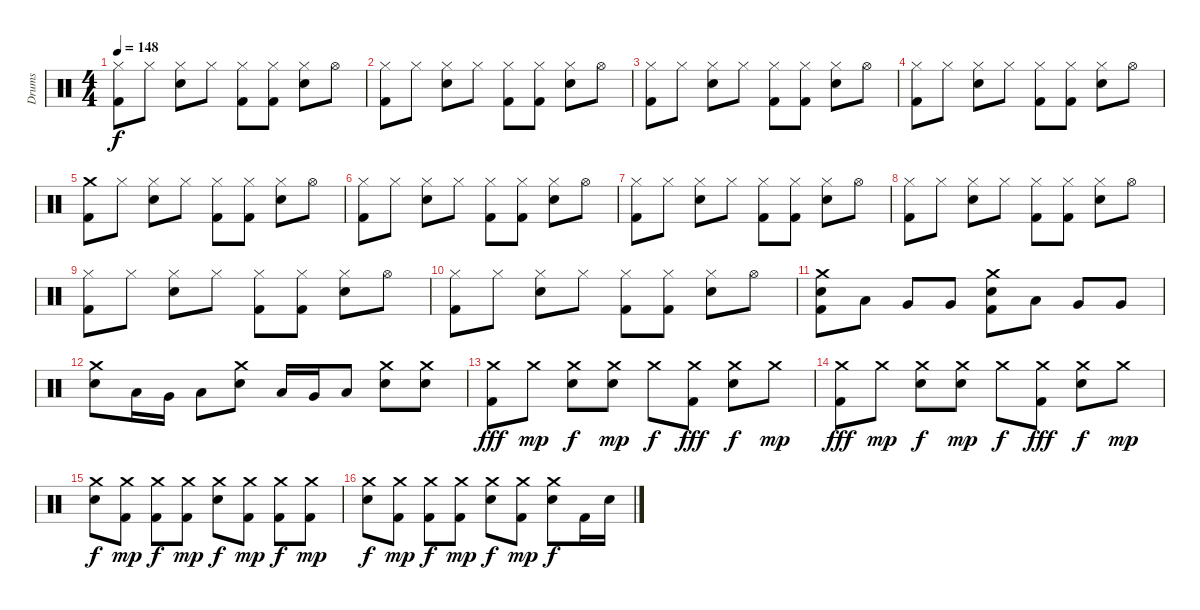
\track ("Drums" "Drums") {instrument percussion}
\staff {score}
\articulation defaults
\ts (4 4)
\tempo 148
\clef neutral
\ks c
("Hi-Hat (closed)" "Kick (hit) 2").8{dy f} "Hi-Hat (closed)".8 ("Hi-Hat (closed)" "Snare (hit) 2").8 "Hi-Hat (closed)".8 ("Hi-Hat (closed)" "Kick (hit) 2").8 ("Hi-Hat (closed)" "Kick (hit) 2").8 ("Hi-Hat (closed)" "Snare (hit) 2").8 "Hi-Hat (open)".8 |
("Hi-Hat (closed)" "Kick (hit) 2").8 "Hi-Hat (closed)".8 ("Hi-Hat (closed)" "Snare (hit) 2").8 "Hi-Hat (closed)".8 ("Hi-Hat (closed)" "Kick (hit) 2").8 ("Hi-Hat (closed)" "Kick (hit) 2").8 ("Hi-Hat (closed)" "Snare (hit) 2").8 "Hi-Hat (open)".8 |
("Hi-Hat (closed)" "Kick (hit) 2").8 "Hi-Hat (closed)".8 ("Hi-Hat (closed)" "Snare (hit) 2").8 "Hi-Hat (closed)".8 ("Hi-Hat (closed)" "Kick (hit) 2").8 ("Hi-Hat (closed)" "Kick (hit) 2").8 ("Hi-Hat (closed)" "Snare (hit) 2").8 "Hi-Hat (open)".8 |
("Hi-Hat (closed)" "Kick (hit) 2").8 "Hi-Hat (closed)".8 ("Hi-Hat (closed)" "Snare (hit) 2").8 "Hi-Hat (closed)".8 ("Hi-Hat (closed)" "Kick (hit) 2").8 ("Hi-Hat (closed)" "Kick (hit) 2").8 ("Hi-Hat (closed)" "Snare (hit) 2").8 "Hi-Hat (open)".8 |
("Crash medium (hit)" "Kick (hit) 2").8 "Hi-Hat (closed)".8 ("Hi-Hat (closed)" "Snare (hit) 2").8 "Hi-Hat (closed)".8 ("Hi-Hat (closed)" "Kick (hit) 2").8 ("Hi-Hat (closed)" "Kick (hit) 2").8 ("Hi-Hat (closed)" "Snare (hit) 2").8 "Hi-Hat (open)".8 |
("Hi-Hat (closed)" "Kick (hit) 2").8 "Hi-Hat (closed)".8 ("Hi-Hat (closed)" "Snare (hit) 2").8 "Hi-Hat (closed)".8 ("Hi-Hat (closed)" "Kick (hit) 2").8 ("Hi-Hat (closed)" "Kick (hit) 2").8 ("Hi-Hat (closed)" "Snare (hit) 2").8 "Hi-Hat (open)".8 |
("Hi-Hat (closed)" "Kick (hit) 2").8 "Hi-Hat (closed)".8 ("Hi-Hat (closed)" "Snare (hit) 2").8 "Hi-Hat (closed)".8 ("Hi-Hat (closed)" "Kick (hit) 2").8 ("Hi-Hat (closed)" "Kick (hit) 2").8 ("Hi-Hat (closed)" "Snare (hit) 2").8 "Hi-Hat (open)".8 |
("Hi-Hat (closed)" "Kick (hit) 2").8 "Hi-Hat (closed)".8 ("Hi-Hat (closed)" "Snare (hit) 2").8 "Hi-Hat (closed)".8 ("Hi-Hat (closed)" "Kick (hit) 2").8 ("Hi-Hat (closed)" "Kick (hit) 2").8 ("Hi-Hat (closed)" "Snare (hit) 2").8 "Hi-Hat (open)".8 |
("Hi-Hat (closed)" "Kick (hit) 2").8 "Hi-Hat (closed)".8 ("Hi-Hat (closed)" "Snare (hit) 2").8 "Hi-Hat (closed)".8 ("Hi-Hat (closed)" "Kick (hit) 2").8 ("Hi-Hat (closed)" "Kick (hit) 2").8 ("Hi-Hat (closed)" "Snare (hit) 2").8 "Hi-Hat (open)".8 |
("Hi-Hat (closed)" "Kick (hit) 2").8 "Hi-Hat (closed)".8 ("Hi-Hat (closed)" "Snare (hit) 2").8 "Hi-Hat (closed)".8 ("Hi-Hat (closed)" "Kick (hit) 2").8 ("Hi-Hat (closed)" "Kick (hit) 2").8 ("Hi-Hat (closed)" "Snare (hit) 2").8 "Hi-Hat (open)".8 |
("Crash medium (hit)" "Snare (hit) 2" "Kick (hit) 2").8 "Low Tom (hit)".8 "Very Low Tom (hit)".8 "Very Low Tom (hit)".8 ("Crash medium (hit)" "Snare (hit) 2" "Kick (hit) 2").8 "Low Tom (hit)".8 "Very Low Tom (hit)".8 "Very Low Tom (hit)".8 |
("Crash medium (hit)" "Snare (hit) 2").8 "Low Tom (hit)".16 "Very Low Tom (hit)".16 "Low Floor Tom (hit)".8 ("Crash medium (hit)" "Snare (hit) 2").8 "Low Tom (hit)".16 "Very Low Tom (hit)".16 "Low Floor Tom (hit)".8 ("Crash medium (hit)" "Snare (hit) 2").8 ("Crash medium (hit)" "Snare (hit) 2").8 |
("Crash medium (hit)" "Kick (hit) 2").8{dy fff} "Crash medium (hit)".8{dy mp} ("Crash medium (hit)" "Snare (hit) 2").8{dy f} ("Crash medium (hit)" "Snare (hit) 2").8{dy mp} "Crash medium (hit)".8{dy f} ("Crash medium (hit)" "Kick (hit) 2").8{dy fff} ("Crash medium (hit)" "Snare (hit) 2").8{dy f} "Crash medium (hit)".8{dy mp} |
("Crash medium (hit)" "Kick (hit) 2").8{dy fff} "Crash medium (hit)".8{dy mp} ("Crash medium (hit)" "Snare (hit) 2").8{dy f} ("Crash medium (hit)" "Snare (hit) 2").8{dy mp} "Crash medium (hit)".8{dy f} ("Crash medium (hit)" "Kick (hit) 2").8{dy fff} ("Crash medium (hit)" "Snare (hit) 2").8{dy f} "Crash medium (hit)".8{dy mp} |
("Crash medium (hit)" "Snare (hit) 2").8{dy f} ("Crash medium (hit)" "Kick (hit) 2").8{dy mp} ("Crash medium (hit)" "Kick (hit) 2").8{dy f} ("Crash medium (hit)" "Kick (hit) 2").8{dy mp} ("Crash medium (hit)" "Snare (hit) 2").8{dy f} ("Crash medium (hit)" "Kick (hit) 2").8{dy mp} ("Crash medium (hit)" "Kick (hit) 2").8{dy f} ("Crash medium (hit)" "Kick (hit) 2").8{dy mp} |
("Crash medium (hit)" "Snare (hit) 2").8{dy f} ("Crash medium (hit)" "Kick (hit) 2").8{dy mp} ("Crash medium (hit)" "Kick (hit) 2").8{dy f} ("Crash medium (hit)" "Kick (hit) 2").8{dy mp} ("Crash medium (hit)" "Snare (hit) 2").8{dy f} ("Crash medium (hit)" "Kick (hit) 2").8{dy mp} ("Crash medium (hit)" "Snare (hit) 2").8{dy f} "Kick (hit) 2".16 "Snare (hit) 2".16
